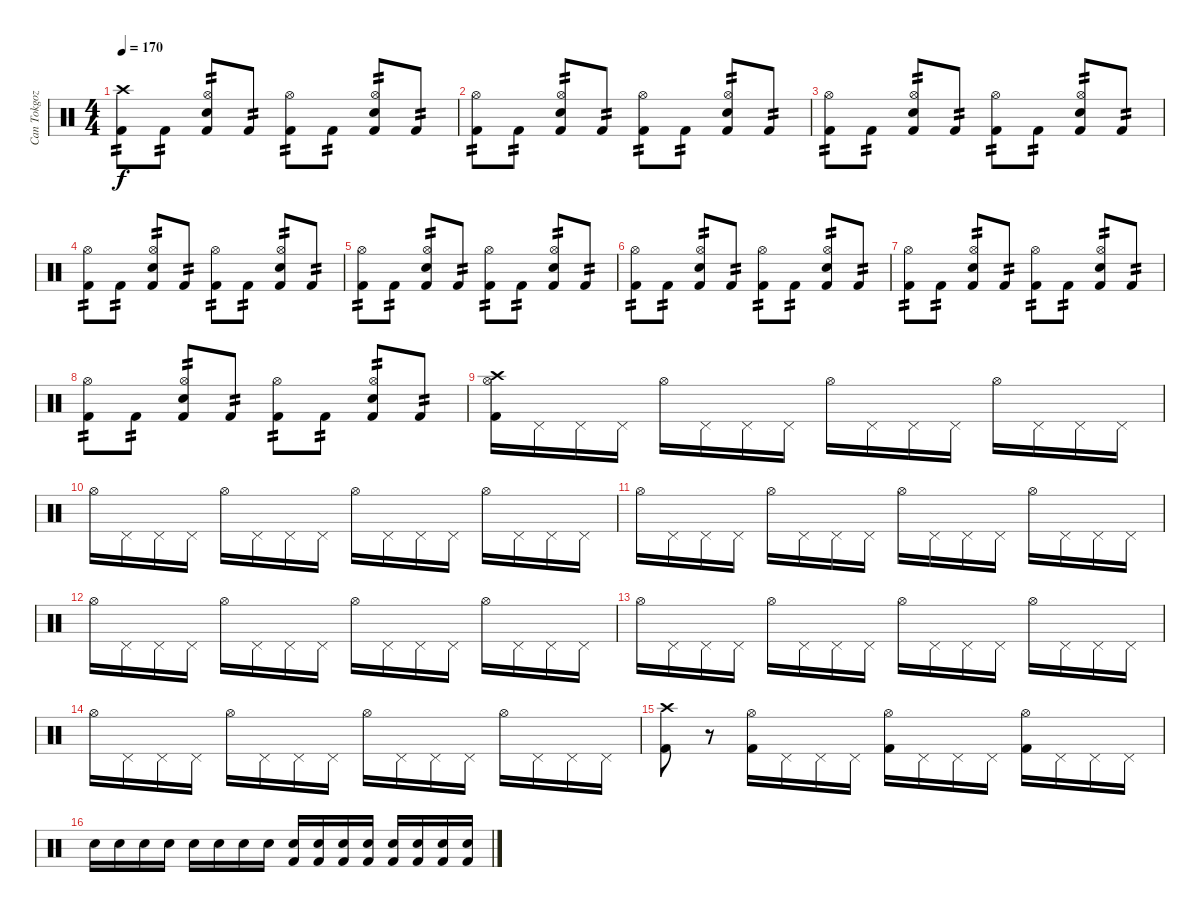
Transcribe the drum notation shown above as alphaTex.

\track ("Can Tokgoz" "Can Tokgoz") {instrument percussion}
\staff {score}
\articulation defaults
\ts (4 4)
\tempo 170
\clef neutral
\ks c
("Crash high (hit)" "Kick (hit) 2").8{tp 2 dy f} "Kick (hit) 2".8{tp 2} ("Hi-Hat (open)" "Snare (hit) 2" "Kick (hit) 2").8{tp 2} "Kick (hit) 2".8{tp 2} ("Hi-Hat (open)" "Kick (hit) 2").8{tp 2} "Kick (hit) 2".8{tp 2} ("Hi-Hat (open)" "Snare (hit) 2" "Kick (hit) 2").8{tp 2} "Kick (hit) 2".8{tp 2} |
("Hi-Hat (open)" "Kick (hit) 2").8{tp 2} "Kick (hit) 2".8{tp 2} ("Hi-Hat (open)" "Snare (hit) 2" "Kick (hit) 2").8{tp 2} "Kick (hit) 2".8{tp 2} ("Hi-Hat (open)" "Kick (hit) 2").8{tp 2} "Kick (hit) 2".8{tp 2} ("Hi-Hat (open)" "Snare (hit) 2" "Kick (hit) 2").8{tp 2} "Kick (hit) 2".8{tp 2} |
("Hi-Hat (open)" "Kick (hit) 2").8{tp 2} "Kick (hit) 2".8{tp 2} ("Hi-Hat (open)" "Snare (hit) 2" "Kick (hit) 2").8{tp 2} "Kick (hit) 2".8{tp 2} ("Hi-Hat (open)" "Kick (hit) 2").8{tp 2} "Kick (hit) 2".8{tp 2} ("Hi-Hat (open)" "Snare (hit) 2" "Kick (hit) 2").8{tp 2} "Kick (hit) 2".8{tp 2} |
("Hi-Hat (open)" "Kick (hit) 2").8{tp 2} "Kick (hit) 2".8{tp 2} ("Hi-Hat (open)" "Snare (hit) 2" "Kick (hit) 2").8{tp 2} "Kick (hit) 2".8{tp 2} ("Hi-Hat (open)" "Kick (hit) 2").8{tp 2} "Kick (hit) 2".8{tp 2} ("Hi-Hat (open)" "Snare (hit) 2" "Kick (hit) 2").8{tp 2} "Kick (hit) 2".8{tp 2} |
("Hi-Hat (open)" "Kick (hit) 2").8{tp 2} "Kick (hit) 2".8{tp 2} ("Hi-Hat (open)" "Snare (hit) 2" "Kick (hit) 2").8{tp 2} "Kick (hit) 2".8{tp 2} ("Hi-Hat (open)" "Kick (hit) 2").8{tp 2} "Kick (hit) 2".8{tp 2} ("Hi-Hat (open)" "Snare (hit) 2" "Kick (hit) 2").8{tp 2} "Kick (hit) 2".8{tp 2} |
("Hi-Hat (open)" "Kick (hit) 2").8{tp 2} "Kick (hit) 2".8{tp 2} ("Hi-Hat (open)" "Snare (hit) 2" "Kick (hit) 2").8{tp 2} "Kick (hit) 2".8{tp 2} ("Hi-Hat (open)" "Kick (hit) 2").8{tp 2} "Kick (hit) 2".8{tp 2} ("Hi-Hat (open)" "Snare (hit) 2" "Kick (hit) 2").8{tp 2} "Kick (hit) 2".8{tp 2} |
("Hi-Hat (open)" "Kick (hit) 2").8{tp 2} "Kick (hit) 2".8{tp 2} ("Hi-Hat (open)" "Snare (hit) 2" "Kick (hit) 2").8{tp 2} "Kick (hit) 2".8{tp 2} ("Hi-Hat (open)" "Kick (hit) 2").8{tp 2} "Kick (hit) 2".8{tp 2} ("Hi-Hat (open)" "Snare (hit) 2" "Kick (hit) 2").8{tp 2} "Kick (hit) 2".8{tp 2} |
("Hi-Hat (open)" "Kick (hit) 2").8{tp 2} "Kick (hit) 2".8{tp 2} ("Hi-Hat (open)" "Snare (hit) 2" "Kick (hit) 2").8{tp 2} "Kick (hit) 2".8{tp 2} ("Hi-Hat (open)" "Kick (hit) 2").8{tp 2} "Kick (hit) 2".8{tp 2} ("Hi-Hat (open)" "Snare (hit) 2" "Kick (hit) 2").8{tp 2} "Kick (hit) 2".8{tp 2} |
("Crash high (hit)" "Hi-Hat (open)" "Kick (hit) 2").16 "Pedal Hi-Hat (hit)".16 "Pedal Hi-Hat (hit)".16 "Pedal Hi-Hat (hit)".16 "Hi-Hat (open)".16 "Pedal Hi-Hat (hit)".16 "Pedal Hi-Hat (hit)".16 "Pedal Hi-Hat (hit)".16 "Hi-Hat (open)".16 "Pedal Hi-Hat (hit)".16 "Pedal Hi-Hat (hit)".16 "Pedal Hi-Hat (hit)".16 "Hi-Hat (open)".16 "Pedal Hi-Hat (hit)".16 "Pedal Hi-Hat (hit)".16 "Pedal Hi-Hat (hit)".16 |
"Hi-Hat (open)".16 "Pedal Hi-Hat (hit)".16 "Pedal Hi-Hat (hit)".16 "Pedal Hi-Hat (hit)".16 "Hi-Hat (open)".16 "Pedal Hi-Hat (hit)".16 "Pedal Hi-Hat (hit)".16 "Pedal Hi-Hat (hit)".16 "Hi-Hat (open)".16 "Pedal Hi-Hat (hit)".16 "Pedal Hi-Hat (hit)".16 "Pedal Hi-Hat (hit)".16 "Hi-Hat (open)".16 "Pedal Hi-Hat (hit)".16 "Pedal Hi-Hat (hit)".16 "Pedal Hi-Hat (hit)".16 |
"Hi-Hat (open)".16 "Pedal Hi-Hat (hit)".16 "Pedal Hi-Hat (hit)".16 "Pedal Hi-Hat (hit)".16 "Hi-Hat (open)".16 "Pedal Hi-Hat (hit)".16 "Pedal Hi-Hat (hit)".16 "Pedal Hi-Hat (hit)".16 "Hi-Hat (open)".16 "Pedal Hi-Hat (hit)".16 "Pedal Hi-Hat (hit)".16 "Pedal Hi-Hat (hit)".16 "Hi-Hat (open)".16 "Pedal Hi-Hat (hit)".16 "Pedal Hi-Hat (hit)".16 "Pedal Hi-Hat (hit)".16 |
"Hi-Hat (open)".16 "Pedal Hi-Hat (hit)".16 "Pedal Hi-Hat (hit)".16 "Pedal Hi-Hat (hit)".16 "Hi-Hat (open)".16 "Pedal Hi-Hat (hit)".16 "Pedal Hi-Hat (hit)".16 "Pedal Hi-Hat (hit)".16 "Hi-Hat (open)".16 "Pedal Hi-Hat (hit)".16 "Pedal Hi-Hat (hit)".16 "Pedal Hi-Hat (hit)".16 "Hi-Hat (open)".16 "Pedal Hi-Hat (hit)".16 "Pedal Hi-Hat (hit)".16 "Pedal Hi-Hat (hit)".16 |
"Hi-Hat (open)".16 "Pedal Hi-Hat (hit)".16 "Pedal Hi-Hat (hit)".16 "Pedal Hi-Hat (hit)".16 "Hi-Hat (open)".16 "Pedal Hi-Hat (hit)".16 "Pedal Hi-Hat (hit)".16 "Pedal Hi-Hat (hit)".16 "Hi-Hat (open)".16 "Pedal Hi-Hat (hit)".16 "Pedal Hi-Hat (hit)".16 "Pedal Hi-Hat (hit)".16 "Hi-Hat (open)".16 "Pedal Hi-Hat (hit)".16 "Pedal Hi-Hat (hit)".16 "Pedal Hi-Hat (hit)".16 |
"Hi-Hat (open)".16 "Pedal Hi-Hat (hit)".16 "Pedal Hi-Hat (hit)".16 "Pedal Hi-Hat (hit)".16 "Hi-Hat (open)".16 "Pedal Hi-Hat (hit)".16 "Pedal Hi-Hat (hit)".16 "Pedal Hi-Hat (hit)".16 "Hi-Hat (open)".16 "Pedal Hi-Hat (hit)".16 "Pedal Hi-Hat (hit)".16 "Pedal Hi-Hat (hit)".16 "Hi-Hat (open)".16 "Pedal Hi-Hat (hit)".16 "Pedal Hi-Hat (hit)".16 "Pedal Hi-Hat (hit)".16 |
("Crash high (hit)" "Kick (hit) 2").8 r.8 ("Hi-Hat (open)" "Kick (hit) 2").16 "Pedal Hi-Hat (hit)".16 "Pedal Hi-Hat (hit)".16 "Pedal Hi-Hat (hit)".16 ("Hi-Hat (open)" "Kick (hit) 2").16 "Pedal Hi-Hat (hit)".16 "Pedal Hi-Hat (hit)".16 "Pedal Hi-Hat (hit)".16 ("Hi-Hat (open)" "Kick (hit) 2").16 "Pedal Hi-Hat (hit)".16 "Pedal Hi-Hat (hit)".16 "Pedal Hi-Hat (hit)".16 |
"Snare (hit) 2".16 "Snare (hit) 2".16 "Snare (hit) 2".16 "Snare (hit) 2".16 "Snare (hit) 2".16 "Snare (hit) 2".16 "Snare (hit) 2".16 "Snare (hit) 2".16 ("Snare (hit) 2" "Kick (hit) 2").16 ("Kick (hit) 2" "Snare (hit) 2").16 ("Kick (hit) 2" "Snare (hit) 2").16 ("Kick (hit) 2" "Snare (hit) 2").16 ("Kick (hit) 2" "Snare (hit) 2").16 ("Kick (hit) 2" "Snare (hit) 2").16 ("Kick (hit) 2" "Snare (hit) 2").16 ("Kick (hit) 2" "Snare (hit) 2").16
